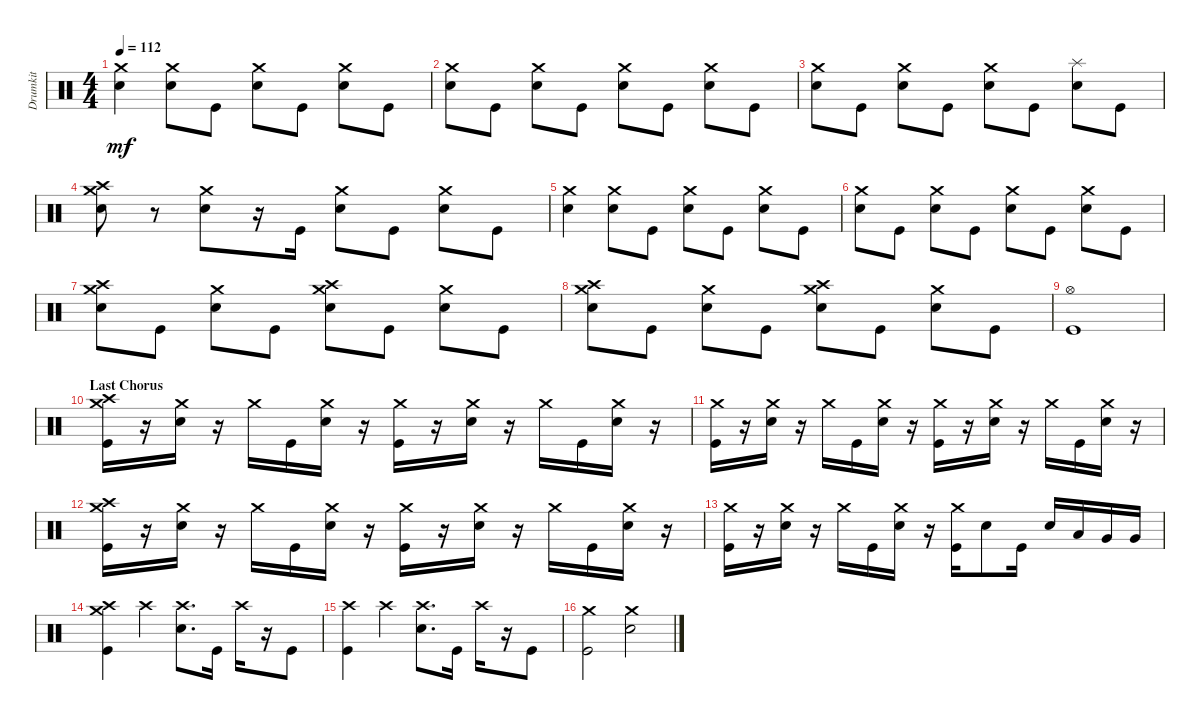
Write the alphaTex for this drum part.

\track ("Drumkit" "Drumkit") {instrument percussion}
\staff {score}
\articulation defaults
\ts (4 4)
\tempo 112
\clef neutral
\ks c
("Crash medium (hit)" "Snare (hit) 2").4{dy mf} ("Snare (hit) 2" "Crash medium (hit)").8 "Kick (hit)".8 ("Snare (hit) 2" "Crash medium (hit)").8 "Kick (hit)".8 ("Snare (hit) 2" "Crash medium (hit)").8 "Kick (hit)".8 |
("Snare (hit) 2" "Crash medium (hit)").8 "Kick (hit)".8 ("Snare (hit) 2" "Crash medium (hit)").8 "Kick (hit)".8 ("Snare (hit) 2" "Crash medium (hit)").8 "Kick (hit)".8 ("Snare (hit) 2" "Crash medium (hit)").8 "Kick (hit)".8 |
("Snare (hit) 2" "Crash medium (hit)").8 "Kick (hit)".8 ("Snare (hit) 2" "Crash medium (hit)").8 "Kick (hit)".8 ("Snare (hit) 2" "Crash medium (hit)").8 "Kick (hit)".8 ("Snare (hit) 2" "Splash (hit)").8 "Kick (hit)".8 |
("Snare (hit) 2" "Crash medium (hit)" "Crash high (hit)").8 r.8 ("Snare (hit) 2" "Crash medium (hit)").8 r.16 "Kick (hit)".16 ("Snare (hit) 2" "Crash medium (hit)").8 "Kick (hit)".8 ("Snare (hit) 2" "Crash medium (hit)").8 "Kick (hit)".8 |
("Crash medium (hit)" "Snare (hit) 2").4 ("Snare (hit) 2" "Crash medium (hit)").8 "Kick (hit)".8 ("Snare (hit) 2" "Crash medium (hit)").8 "Kick (hit)".8 ("Snare (hit) 2" "Crash medium (hit)").8 "Kick (hit)".8 |
("Snare (hit) 2" "Crash medium (hit)").8 "Kick (hit)".8 ("Snare (hit) 2" "Crash medium (hit)").8 "Kick (hit)".8 ("Snare (hit) 2" "Crash medium (hit)").8 "Kick (hit)".8 ("Snare (hit) 2" "Crash medium (hit)").8 "Kick (hit)".8 |
("Snare (hit) 2" "Crash medium (hit)" "Crash high (hit)").8 "Kick (hit)".8 ("Snare (hit) 2" "Crash medium (hit)").8 "Kick (hit)".8 ("Snare (hit) 2" "Crash medium (hit)" "Crash high (hit)").8 "Kick (hit)".8 ("Snare (hit) 2" "Crash medium (hit)").8 "Kick (hit)".8 |
("Snare (hit) 2" "Crash medium (hit)" "Crash high (hit)").8 "Kick (hit)".8 ("Snare (hit) 2" "Crash medium (hit)").8 "Kick (hit)".8 ("Snare (hit) 2" "Crash medium (hit)" "Crash high (hit)").8 "Kick (hit)".8 ("Snare (hit) 2" "Crash medium (hit)").8 "Kick (hit)".8 |
("Kick (hit)" "Hi-Hat (open)").1 |
\section ("" "Last Chorus")
("Kick (hit)" "Crash medium (hit)" "Crash high (hit)").16 r.16 ("Snare (hit) 2" "Crash medium (hit)").16 r.16 "Crash medium (hit)".16 "Kick (hit)".16 ("Snare (hit) 2" "Crash medium (hit)").16 r.16 ("Kick (hit)" "Crash medium (hit)").16 r.16 ("Snare (hit) 2" "Crash medium (hit)").16 r.16 "Crash medium (hit)".16 "Kick (hit)".16 ("Snare (hit) 2" "Crash medium (hit)").16 r.16 |
("Kick (hit)" "Crash medium (hit)").16 r.16 ("Snare (hit) 2" "Crash medium (hit)").16 r.16 "Crash medium (hit)".16 "Kick (hit)".16 ("Snare (hit) 2" "Crash medium (hit)").16 r.16 ("Kick (hit)" "Crash medium (hit)").16 r.16 ("Snare (hit) 2" "Crash medium (hit)").16 r.16 "Crash medium (hit)".16 "Kick (hit)".16 ("Snare (hit) 2" "Crash medium (hit)").16 r.16 |
("Kick (hit)" "Crash medium (hit)" "Crash high (hit)").16 r.16 ("Snare (hit) 2" "Crash medium (hit)").16 r.16 "Crash medium (hit)".16 "Kick (hit)".16 ("Snare (hit) 2" "Crash medium (hit)").16 r.16 ("Kick (hit)" "Crash medium (hit)").16 r.16 ("Snare (hit) 2" "Crash medium (hit)").16 r.16 "Crash medium (hit)".16 "Kick (hit)".16 ("Snare (hit) 2" "Crash medium (hit)").16 r.16 |
("Kick (hit)" "Crash medium (hit)").16 r.16 ("Snare (hit) 2" "Crash medium (hit)").16 r.16 "Crash medium (hit)".16 "Kick (hit)".16 ("Snare (hit) 2" "Crash medium (hit)").16 r.16 ("Kick (hit)" "Crash medium (hit)").16 "Snare (hit) 2".8 "Kick (hit)".16 "Snare (hit) 2".16 "Low Tom (hit)".16 "Very Low Tom (hit)".16 "Very Low Tom (hit)".16 |
("Kick (hit)" "Crash high (hit)" "Crash medium (hit)").4 "Crash high (hit)".4 ("Snare (hit) 2" "Crash high (hit)").8{d} "Kick (hit)".16 "Crash high (hit)".16 r.16 "Kick (hit)".8 |
("Kick (hit)" "Crash high (hit)").4 "Crash high (hit)".4 ("Snare (hit) 2" "Crash high (hit)").8{d} "Kick (hit)".16 "Crash high (hit)".16 r.16 "Kick (hit)".8 |
("Kick (hit)" "Crash medium (hit)").2 ("Snare (hit) 2" "Crash medium (hit)").2
